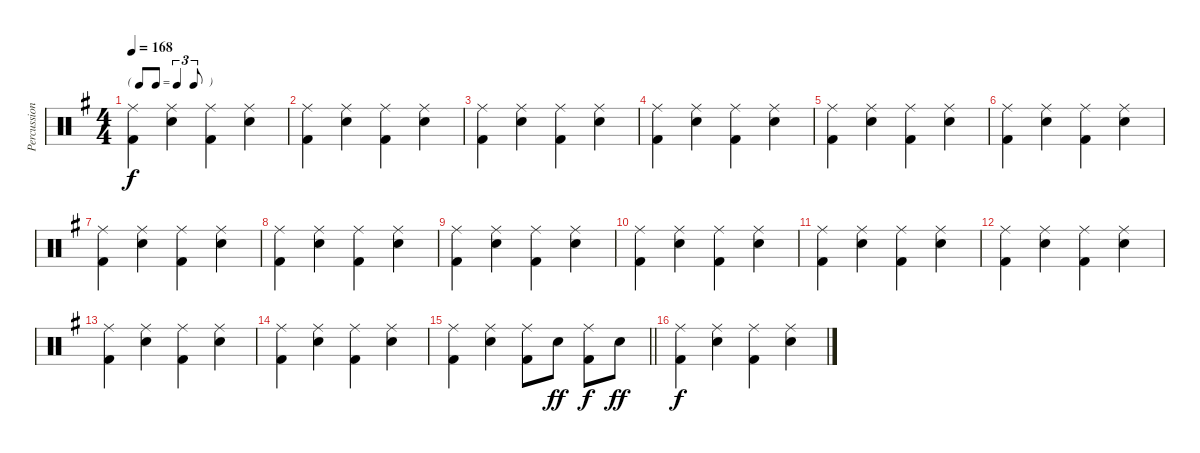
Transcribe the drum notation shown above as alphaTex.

\track ("Percussion" "Percussion") {instrument percussion}
\staff {score}
\articulation defaults
\ts (4 4)
\tf triplet8th
\tempo 168
\clef neutral
\ks g
("Ride (middle)" "Kick (hit) 2").4{dy f} ("Ride (middle)" "Snare (hit) 2").4 ("Ride (middle)" "Kick (hit) 2").4 ("Ride (middle)" "Snare (hit) 2").4 |
("Ride (middle)" "Kick (hit) 2").4 ("Ride (middle)" "Snare (hit) 2").4 ("Ride (middle)" "Kick (hit) 2").4 ("Ride (middle)" "Snare (hit) 2").4 |
("Ride (middle)" "Kick (hit) 2").4 ("Ride (middle)" "Snare (hit) 2").4 ("Ride (middle)" "Kick (hit) 2").4 ("Ride (middle)" "Snare (hit) 2").4 |
("Ride (middle)" "Kick (hit) 2").4 ("Ride (middle)" "Snare (hit) 2").4 ("Ride (middle)" "Kick (hit) 2").4 ("Ride (middle)" "Snare (hit) 2").4 |
("Ride (middle)" "Kick (hit) 2").4 ("Ride (middle)" "Snare (hit) 2").4 ("Ride (middle)" "Kick (hit) 2").4 ("Ride (middle)" "Snare (hit) 2").4 |
("Ride (middle)" "Kick (hit) 2").4 ("Ride (middle)" "Snare (hit) 2").4 ("Ride (middle)" "Kick (hit) 2").4 ("Ride (middle)" "Snare (hit) 2").4 |
("Ride (middle)" "Kick (hit) 2").4 ("Ride (middle)" "Snare (hit) 2").4 ("Ride (middle)" "Kick (hit) 2").4 ("Ride (middle)" "Snare (hit) 2").4 |
("Ride (middle)" "Kick (hit) 2").4 ("Ride (middle)" "Snare (hit) 2").4 ("Ride (middle)" "Kick (hit) 2").4 ("Ride (middle)" "Snare (hit) 2").4 |
("Ride (middle)" "Kick (hit) 2").4 ("Ride (middle)" "Snare (hit) 2").4 ("Ride (middle)" "Kick (hit) 2").4 ("Ride (middle)" "Snare (hit) 2").4 |
("Ride (middle)" "Kick (hit) 2").4 ("Ride (middle)" "Snare (hit) 2").4 ("Ride (middle)" "Kick (hit) 2").4 ("Ride (middle)" "Snare (hit) 2").4 |
("Ride (middle)" "Kick (hit) 2").4 ("Ride (middle)" "Snare (hit) 2").4 ("Ride (middle)" "Kick (hit) 2").4 ("Ride (middle)" "Snare (hit) 2").4 |
("Ride (middle)" "Kick (hit) 2").4 ("Ride (middle)" "Snare (hit) 2").4 ("Ride (middle)" "Kick (hit) 2").4 ("Ride (middle)" "Snare (hit) 2").4 |
("Ride (middle)" "Kick (hit) 2").4 ("Ride (middle)" "Snare (hit) 2").4 ("Ride (middle)" "Kick (hit) 2").4 ("Ride (middle)" "Snare (hit) 2").4 |
("Ride (middle)" "Kick (hit) 2").4 ("Ride (middle)" "Snare (hit) 2").4 ("Ride (middle)" "Kick (hit) 2").4 ("Ride (middle)" "Snare (hit) 2").4 |
\barLineRight lightlight
("Ride (middle)" "Kick (hit) 2").4 ("Ride (middle)" "Snare (hit) 2").4 ("Ride (middle)" "Kick (hit) 2").8 "Snare (hit) 2".8{dy ff} ("Ride (middle)" "Kick (hit) 2").8{dy f} "Snare (hit) 2".8{dy ff} |
("Ride (middle)" "Kick (hit) 2").4{dy f} ("Ride (middle)" "Snare (hit) 2").4 ("Ride (middle)" "Kick (hit) 2").4 ("Ride (middle)" "Snare (hit) 2").4
